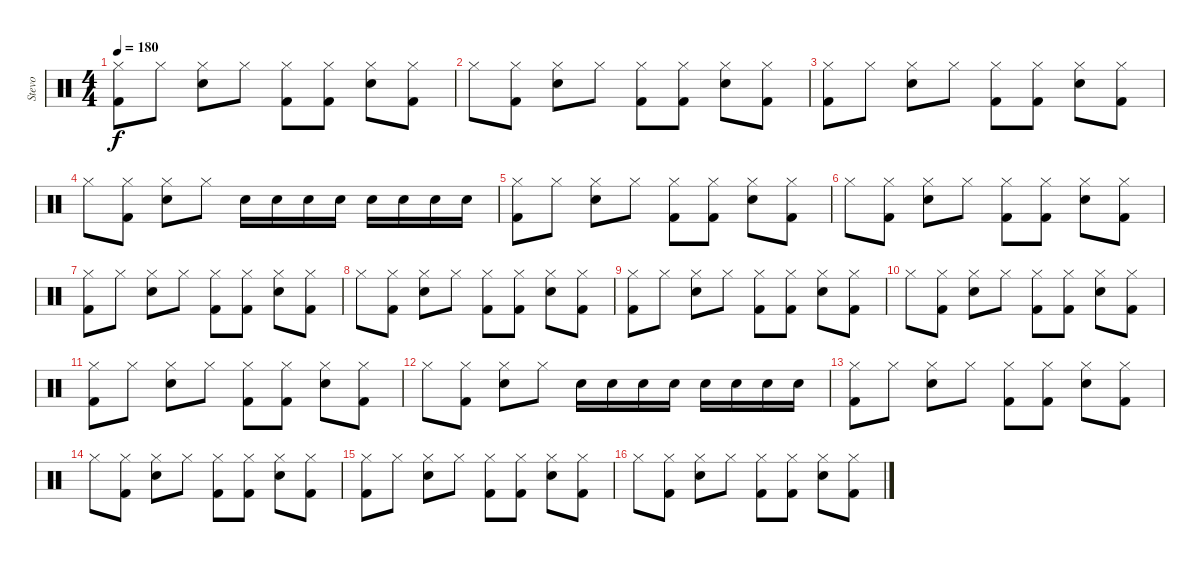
\track ("Stevo" "Stevo") {instrument percussion}
\staff {score}
\articulation defaults
\ts (4 4)
\tempo 180
\clef neutral
\ks c
("Hi-Hat (closed)" "Kick (hit) 2").8{dy f} "Hi-Hat (closed)".8 ("Hi-Hat (closed)" "Electric Snare (hit)").8 "Hi-Hat (closed)".8 ("Hi-Hat (closed)" "Kick (hit) 2").8 ("Hi-Hat (closed)" "Kick (hit) 2").8 ("Hi-Hat (closed)" "Electric Snare (hit)").8 ("Hi-Hat (closed)" "Kick (hit) 2").8 |
"Hi-Hat (closed)".8 ("Hi-Hat (closed)" "Kick (hit) 2").8 ("Hi-Hat (closed)" "Electric Snare (hit)").8 "Hi-Hat (closed)".8 ("Hi-Hat (closed)" "Kick (hit) 2").8 ("Hi-Hat (closed)" "Kick (hit) 2").8 ("Hi-Hat (closed)" "Electric Snare (hit)").8 ("Hi-Hat (closed)" "Kick (hit) 2").8 |
("Hi-Hat (closed)" "Kick (hit) 2").8 "Hi-Hat (closed)".8 ("Hi-Hat (closed)" "Electric Snare (hit)").8 "Hi-Hat (closed)".8 ("Hi-Hat (closed)" "Kick (hit) 2").8 ("Hi-Hat (closed)" "Kick (hit) 2").8 ("Hi-Hat (closed)" "Electric Snare (hit)").8 ("Hi-Hat (closed)" "Kick (hit) 2").8 |
"Hi-Hat (closed)".8 ("Hi-Hat (closed)" "Kick (hit) 2").8 ("Hi-Hat (closed)" "Electric Snare (hit)").8 "Hi-Hat (closed)".8 "Electric Snare (hit)".16 "Electric Snare (hit)".16 "Electric Snare (hit)".16 "Electric Snare (hit)".16 "Electric Snare (hit)".16 "Electric Snare (hit)".16 "Electric Snare (hit)".16 "Electric Snare (hit)".16 |
("Hi-Hat (closed)" "Kick (hit) 2").8 "Hi-Hat (closed)".8 ("Hi-Hat (closed)" "Electric Snare (hit)").8 "Hi-Hat (closed)".8 ("Hi-Hat (closed)" "Kick (hit) 2").8 ("Hi-Hat (closed)" "Kick (hit) 2").8 ("Hi-Hat (closed)" "Electric Snare (hit)").8 ("Hi-Hat (closed)" "Kick (hit) 2").8 |
"Hi-Hat (closed)".8 ("Hi-Hat (closed)" "Kick (hit) 2").8 ("Hi-Hat (closed)" "Electric Snare (hit)").8 "Hi-Hat (closed)".8 ("Hi-Hat (closed)" "Kick (hit) 2").8 ("Hi-Hat (closed)" "Kick (hit) 2").8 ("Hi-Hat (closed)" "Electric Snare (hit)").8 ("Hi-Hat (closed)" "Kick (hit) 2").8 |
("Hi-Hat (closed)" "Kick (hit) 2").8 "Hi-Hat (closed)".8 ("Hi-Hat (closed)" "Electric Snare (hit)").8 "Hi-Hat (closed)".8 ("Hi-Hat (closed)" "Kick (hit) 2").8 ("Hi-Hat (closed)" "Kick (hit) 2").8 ("Hi-Hat (closed)" "Electric Snare (hit)").8 ("Hi-Hat (closed)" "Kick (hit) 2").8 |
"Hi-Hat (closed)".8 ("Hi-Hat (closed)" "Kick (hit) 2").8 ("Hi-Hat (closed)" "Electric Snare (hit)").8 "Hi-Hat (closed)".8 ("Hi-Hat (closed)" "Kick (hit) 2").8 ("Hi-Hat (closed)" "Kick (hit) 2").8 ("Hi-Hat (closed)" "Electric Snare (hit)").8 ("Hi-Hat (closed)" "Kick (hit) 2").8 |
("Hi-Hat (closed)" "Kick (hit) 2").8 "Hi-Hat (closed)".8 ("Hi-Hat (closed)" "Electric Snare (hit)").8 "Hi-Hat (closed)".8 ("Hi-Hat (closed)" "Kick (hit) 2").8 ("Hi-Hat (closed)" "Kick (hit) 2").8 ("Hi-Hat (closed)" "Electric Snare (hit)").8 ("Hi-Hat (closed)" "Kick (hit) 2").8 |
"Hi-Hat (closed)".8 ("Hi-Hat (closed)" "Kick (hit) 2").8 ("Hi-Hat (closed)" "Electric Snare (hit)").8 "Hi-Hat (closed)".8 ("Hi-Hat (closed)" "Kick (hit) 2").8 ("Hi-Hat (closed)" "Kick (hit) 2").8 ("Hi-Hat (closed)" "Electric Snare (hit)").8 ("Hi-Hat (closed)" "Kick (hit) 2").8 |
("Hi-Hat (closed)" "Kick (hit) 2").8 "Hi-Hat (closed)".8 ("Hi-Hat (closed)" "Electric Snare (hit)").8 "Hi-Hat (closed)".8 ("Hi-Hat (closed)" "Kick (hit) 2").8 ("Hi-Hat (closed)" "Kick (hit) 2").8 ("Hi-Hat (closed)" "Electric Snare (hit)").8 ("Hi-Hat (closed)" "Kick (hit) 2").8 |
"Hi-Hat (closed)".8 ("Hi-Hat (closed)" "Kick (hit) 2").8 ("Hi-Hat (closed)" "Electric Snare (hit)").8 "Hi-Hat (closed)".8 "Electric Snare (hit)".16 "Electric Snare (hit)".16 "Electric Snare (hit)".16 "Electric Snare (hit)".16 "Electric Snare (hit)".16 "Electric Snare (hit)".16 "Electric Snare (hit)".16 "Electric Snare (hit)".16 |
("Hi-Hat (closed)" "Kick (hit) 2").8 "Hi-Hat (closed)".8 ("Hi-Hat (closed)" "Electric Snare (hit)").8 "Hi-Hat (closed)".8 ("Hi-Hat (closed)" "Kick (hit) 2").8 ("Hi-Hat (closed)" "Kick (hit) 2").8 ("Hi-Hat (closed)" "Electric Snare (hit)").8 ("Hi-Hat (closed)" "Kick (hit) 2").8 |
"Hi-Hat (closed)".8 ("Hi-Hat (closed)" "Kick (hit) 2").8 ("Hi-Hat (closed)" "Electric Snare (hit)").8 "Hi-Hat (closed)".8 ("Hi-Hat (closed)" "Kick (hit) 2").8 ("Hi-Hat (closed)" "Kick (hit) 2").8 ("Hi-Hat (closed)" "Electric Snare (hit)").8 ("Hi-Hat (closed)" "Kick (hit) 2").8 |
("Hi-Hat (closed)" "Kick (hit) 2").8 "Hi-Hat (closed)".8 ("Hi-Hat (closed)" "Electric Snare (hit)").8 "Hi-Hat (closed)".8 ("Hi-Hat (closed)" "Kick (hit) 2").8 ("Hi-Hat (closed)" "Kick (hit) 2").8 ("Hi-Hat (closed)" "Electric Snare (hit)").8 ("Hi-Hat (closed)" "Kick (hit) 2").8 |
"Hi-Hat (closed)".8 ("Hi-Hat (closed)" "Kick (hit) 2").8 ("Hi-Hat (closed)" "Electric Snare (hit)").8 "Hi-Hat (closed)".8 ("Hi-Hat (closed)" "Kick (hit) 2").8 ("Hi-Hat (closed)" "Kick (hit) 2").8 ("Hi-Hat (closed)" "Electric Snare (hit)").8 ("Hi-Hat (closed)" "Kick (hit) 2").8
